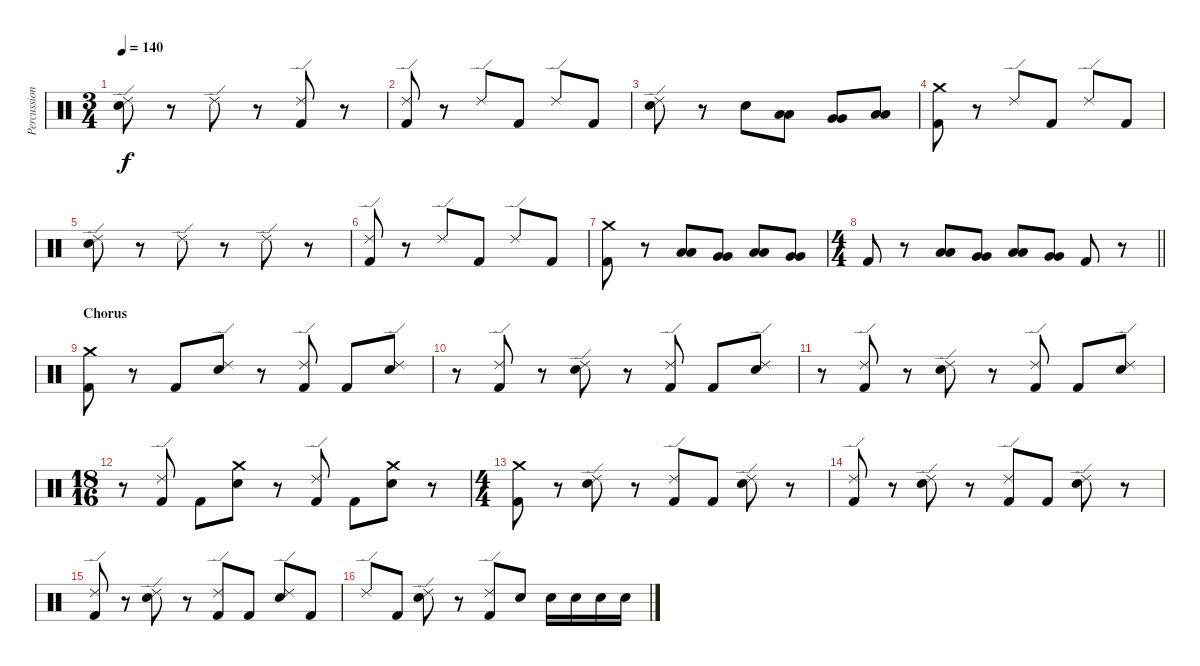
\track ("Percussion" "Percussion") {instrument percussion}
\staff {score}
\articulation defaults
\ts (3 4)
\tempo 140
\clef neutral
\ks c
("Ride (edge) 2" "Electric Snare (hit)").8{dy f} r.8 "Ride (edge) 2".8 r.8 ("Ride (edge) 2" "Kick (hit) 2").8 r.8 |
("Ride (edge) 2" "Kick (hit) 2").8 r.8 "Ride (edge) 2".8 "Kick (hit) 2".8 "Ride (edge) 2".8 "Kick (hit) 2".8 |
("Ride (edge) 2" "Electric Snare (hit)").8 r.8 "Electric Snare (hit)".8 ("Low Floor Tom (hit)" "Low Floor Tom (hit)").8 ("Very Low Tom (hit)" "Very Low Tom (hit)").8 ("Low Tom (hit)" "Low Tom (hit)").8 |
("Crash medium (hit)" "Kick (hit) 2").8 r.8 "Ride (edge) 2".8 "Kick (hit) 2".8 "Ride (edge) 2".8 "Kick (hit) 2".8 |
("Ride (edge) 2" "Electric Snare (hit)").8 r.8 "Ride (edge) 2".8 r.8 "Ride (edge) 2".8 r.8 |
("Ride (edge) 2" "Kick (hit) 2").8 r.8 "Ride (edge) 2".8 "Kick (hit) 2".8 "Ride (edge) 2".8 "Kick (hit) 2".8 |
("Crash medium (hit)" "Kick (hit) 2").8 r.8 ("Low Tom (hit)" "Low Tom (hit)").8 ("Very Low Tom (hit)" "Very Low Tom (hit)").8 ("Low Floor Tom (hit)" "Low Floor Tom (hit)").8 ("Very Low Tom (hit)" "Very Low Tom (hit)").8 |
\ts (4 4)
\barLineRight lightlight "Kick (hit) 2".8
r.8 ("Low Tom (hit)" "Low Tom (hit)").8 ("Very Low Tom (hit)" "Very Low Tom (hit)").8 ("Low Floor Tom (hit)" "Low Floor Tom (hit)").8 ("Very Low Tom (hit)" "Very Low Tom (hit)").8 "Kick (hit) 2".8 r.8 |
\section ("" "Chorus")
("Crash medium (hit)" "Kick (hit) 2").8 r.8 "Kick (hit) 2".8 ("Ride (edge) 2" "Electric Snare (hit)").8 r.8 ("Ride (edge) 2" "Kick (hit) 2").8 "Kick (hit) 2".8 ("Ride (edge) 2" "Electric Snare (hit)").8 |
r.8 ("Ride (edge) 2" "Kick (hit) 2").8 r.8 ("Ride (edge) 2" "Electric Snare (hit)").8 r.8 ("Ride (edge) 2" "Kick (hit) 2").8 "Kick (hit) 2".8 ("Ride (edge) 2" "Electric Snare (hit)").8 |
r.8 ("Ride (edge) 2" "Kick (hit) 2").8 r.8 ("Ride (edge) 2" "Electric Snare (hit)").8 r.8 ("Ride (edge) 2" "Kick (hit) 2").8 "Kick (hit) 2".8 ("Ride (edge) 2" "Electric Snare (hit)").8 |
\ts (18 16)
r.8 ("Ride (edge) 2" "Kick (hit) 2").8 "Kick (hit) 2".8 ("Crash medium (hit)" "Electric Snare (hit)").8 r.8 ("Ride (edge) 2" "Kick (hit) 2").8 "Kick (hit) 2".8 ("Crash medium (hit)" "Electric Snare (hit)").8 r.8 |
\ts (4 4)
("Crash medium (hit)" "Kick (hit) 2").8 r.8 ("Ride (edge) 2" "Electric Snare (hit)").8 r.8 ("Ride (edge) 2" "Kick (hit) 2").8 "Kick (hit) 2".8 ("Ride (edge) 2" "Electric Snare (hit)").8 r.8 |
("Ride (edge) 2" "Kick (hit) 2").8 r.8 ("Ride (edge) 2" "Electric Snare (hit)").8 r.8 ("Ride (edge) 2" "Kick (hit) 2").8 "Kick (hit) 2".8 ("Ride (edge) 2" "Electric Snare (hit)").8 r.8 |
("Ride (edge) 2" "Kick (hit) 2").8 r.8 ("Ride (edge) 2" "Electric Snare (hit)").8 r.8 ("Ride (edge) 2" "Kick (hit) 2").8 "Kick (hit) 2".8 ("Ride (edge) 2" "Electric Snare (hit)").8 "Kick (hit) 2".8 |
"Ride (edge) 2".8 "Kick (hit) 2".8 ("Ride (edge) 2" "Electric Snare (hit)").8 r.8 ("Ride (edge) 2" "Kick (hit) 2").8 "Electric Snare (hit)".8 "Electric Snare (hit)".16 "Electric Snare (hit)".16 "Electric Snare (hit)".16 "Electric Snare (hit)".16
